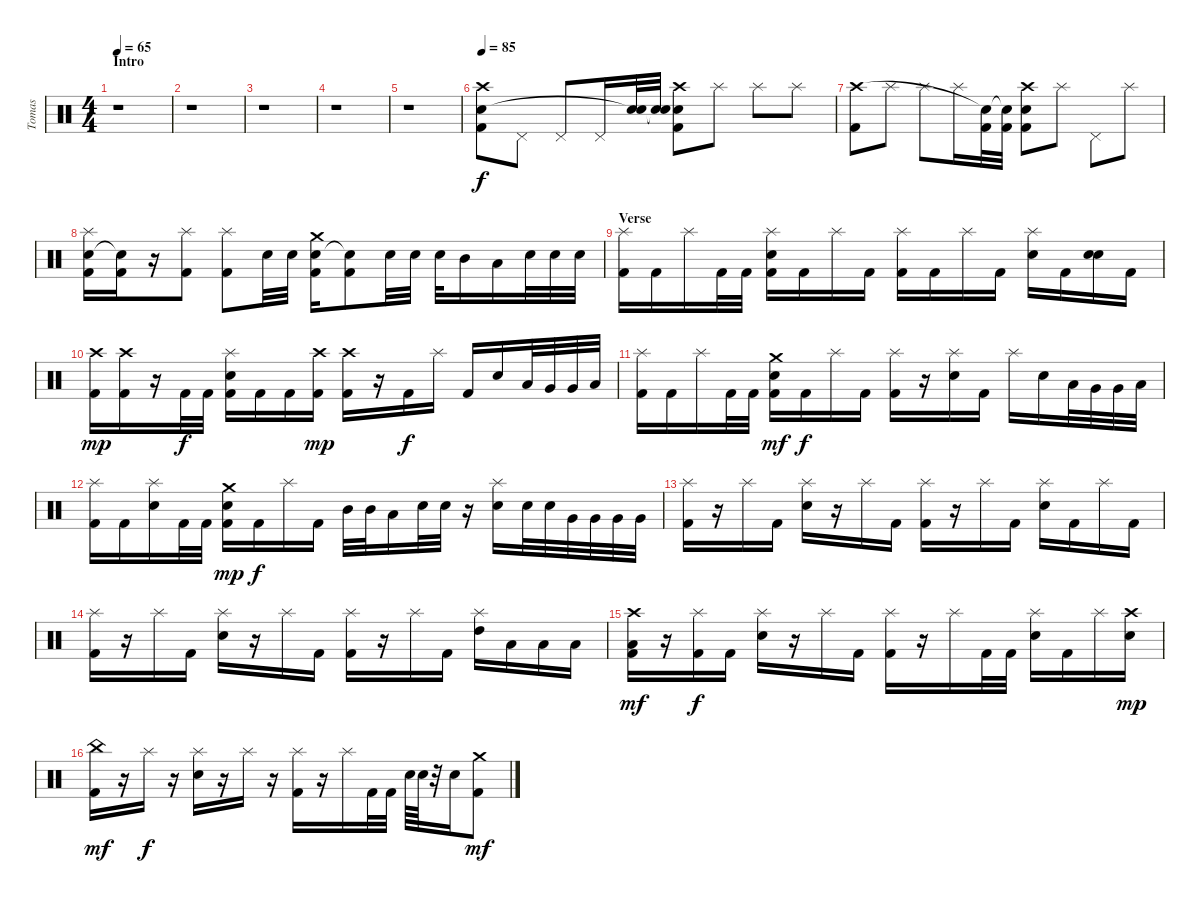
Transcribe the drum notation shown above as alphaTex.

\track ("Tomas" "Tomas") {instrument percussion}
\staff {score}
\articulation defaults
\ts (4 4)
\section ("" "Intro")
\tempo 65
\clef neutral
\ks c
r.1{dy f} |
r.1 |
r.1 |
r.1 |
r.1 |
\tempo 85
("Kick (hit) 2" "Electric Snare (hit)" "Crash high (hit)").8 "Pedal Hi-Hat (hit)".8 "Pedal Hi-Hat (hit)".8 "Pedal Hi-Hat (hit)".16 ("Electric Snare (hit)" "Snare (hit)"{t}).32 ("Electric Snare (hit)" "Snare (hit)"{t}).32 ("Kick (hit) 2" "Electric Snare (hit)" "Crash high (hit)").8 "Splash (hit)".8 "Splash (hit)".8 "Splash (hit)".8 |
("Kick (hit) 2" "Crash high (hit)").8 "Splash (hit)".8 "Splash (hit)".8 "Splash (hit)".16 ("Kick (hit) 2" "Snare (hit)"{t}).32 ("Kick (hit) 2" "Snare (hit)"{t}).32 ("Kick (hit) 2" "Electric Snare (hit)" "Crash high (hit)").8 "Splash (hit)".8 "Pedal Hi-Hat (hit)".8 "Splash (hit)".8 |
("Kick (hit) 2" "Electric Snare (hit)" "Splash (hit)").16 ("Kick (hit) 2" "Snare (hit)"{t}).16 r.16 ("Kick (hit) 2" "Splash (hit)").8 ("Kick (hit) 2" "Splash (hit)").8 "Snare (hit) 2".32 "Snare (hit) 2".32 ("Kick (hit) 2" "Snare (hit) 2" "Crash medium (hit)").16 ("Kick (hit) 2" "Snare (hit)"{t}).8 "Snare (hit) 2".32 "Snare (hit) 2".32 "Snare (hit) 2".32 "Mid Tom (hit)".16 "Low Floor Tom (hit)".16 "Electric Snare (hit)".32 "Electric Snare (hit)".32 "Electric Snare (hit)".32 |
\section ("" "Verse")
("Kick (hit) 2" "Splash (hit)").16 "Kick (hit) 2".16 "Splash (hit)".16 "Kick (hit) 2".32 "Kick (hit) 2".32 ("Kick (hit) 2" "Electric Snare (hit)" "Splash (hit)").16 "Kick (hit) 2".16 "Splash (hit)".16 "Kick (hit) 2".16 ("Kick (hit) 2" "Splash (hit)").16 "Kick (hit) 2".16 "Splash (hit)".16 "Kick (hit) 2".16 ("Snare (hit) 2" "Splash (hit)").16 "Kick (hit) 2".16 ("Electric Snare (hit)" "Snare (hit) 2").16 "Kick (hit) 2".16 |
("Kick (hit) 2" "Crash high (hit)").16{dy mp} ("Kick (hit) 2" "Crash high (hit)").16 r.16 "Kick (hit) 2".32{dy f} "Kick (hit) 2".32 ("Kick (hit) 2" "Electric Snare (hit)" "Splash (hit)").16 "Kick (hit) 2".16 "Kick (hit) 2".16 ("Kick (hit) 2" "Crash high (hit)").16{dy mp} ("Kick (hit) 2" "Crash high (hit)").16 r.16 "Kick (hit) 2".16{dy f} "Splash (hit)".16 "Kick (hit) 2".16 "Electric Snare (hit)".16 "Low Tom (hit)".32 "Very Low Tom (hit)".32 "Very Low Tom (hit)".32 "Low Floor Tom (hit)".32 |
("Kick (hit) 2" "Splash (hit)").16 "Kick (hit) 2".16 "Splash (hit)".16 "Kick (hit) 2".32 "Kick (hit) 2".32 ("Kick (hit) 2" "Electric Snare (hit)" "Crash medium (hit)").16{dy mf} "Kick (hit) 2".16{dy f} "Splash (hit)".16 "Kick (hit) 2".16 ("Kick (hit) 2" "Splash (hit)").16 r.16 ("Electric Snare (hit)" "Splash (hit)").16 "Kick (hit) 2".16 "Splash (hit)".16 "Electric Snare (hit)".16 "Low Tom (hit)".32 "Very Low Tom (hit)".32 "Very Low Tom (hit)".32 "Low Floor Tom (hit)".32 |
("Kick (hit) 2" "Splash (hit)").16 "Kick (hit) 2".16 ("Electric Snare (hit)" "Splash (hit)").16 "Kick (hit) 2".32 "Kick (hit) 2".32 ("Kick (hit) 2" "Electric Snare (hit)" "Crash medium (hit)").16{dy mp} "Kick (hit) 2".16{dy f} "Splash (hit)".16 "Kick (hit) 2".16 "Mid Tom (hit)".32 "Mid Tom (hit)".32 "Low Floor Tom (hit)".16 "Electric Snare (hit)".32 "Electric Snare (hit)".32 r.16 ("Electric Snare (hit)" "Splash (hit)").16 "Electric Snare (hit)".32 "Electric Snare (hit)".32 "Very Low Tom (hit)".32 "Very Low Tom (hit)".32 "Very Low Tom (hit)".32 "Very Low Tom (hit)".32 |
("Kick (hit) 2" "Splash (hit)").16 r.16 "Splash (hit)".16 "Kick (hit) 2".16 ("Electric Snare (hit)" "Splash (hit)").16 r.16 "Splash (hit)".16 "Kick (hit) 2".16 ("Kick (hit) 2" "Splash (hit)").16 r.16 "Splash (hit)".16 "Kick (hit) 2".16 ("Electric Snare (hit)" "Splash (hit)").16 "Kick (hit) 2".16 "Splash (hit)".16 "Kick (hit) 2".16 |
("Kick (hit) 2" "Splash (hit)").16 r.16 "Splash (hit)".16 "Kick (hit) 2".16 ("Electric Snare (hit)" "Splash (hit)").16 r.16 "Splash (hit)".16 "Kick (hit) 2".16 ("Kick (hit) 2" "Splash (hit)").16 r.16 "Splash (hit)".16 "Kick (hit) 2".16 ("High Tom (hit)" "Splash (hit)").16 "Low Tom (hit)".16 "Low Floor Tom (hit)".16 "Low Floor Tom (hit)".16 |
("Kick (hit) 2" "Low Floor Tom (hit)" "Crash high (hit)").16{dy mf} r.16 ("Kick (hit) 2" "Splash (hit)").16{dy f} "Kick (hit) 2".16 ("Electric Snare (hit)" "Splash (hit)").16 r.16 "Splash (hit)".16 "Kick (hit) 2".16 ("Kick (hit) 2" "Splash (hit)").16 r.16 "Splash (hit)".16 "Kick (hit) 2".32 "Kick (hit) 2".32 ("Electric Snare (hit)" "Splash (hit)").16 "Kick (hit) 2".16 "Splash (hit)".16 ("Electric Snare (hit)" "Crash high (hit)").16{dy mp} |
("Kick (hit) 2" "China (hit)").16{dy mf} r.16 "Splash (hit)".16{dy f} r.16 ("Electric Snare (hit)" "Splash (hit)").16 r.16 "Splash (hit)".16 r.16 ("Kick (hit) 2" "Splash (hit)").16 r.16 "Splash (hit)".16 "Kick (hit) 2".32 "Kick (hit) 2".32 "Electric Snare (hit)".64 "Electric Snare (hit)".64 r.32 "Electric Snare (hit)".16 ("Kick (hit) 2" "Crash medium (hit)").8{dy mf}
